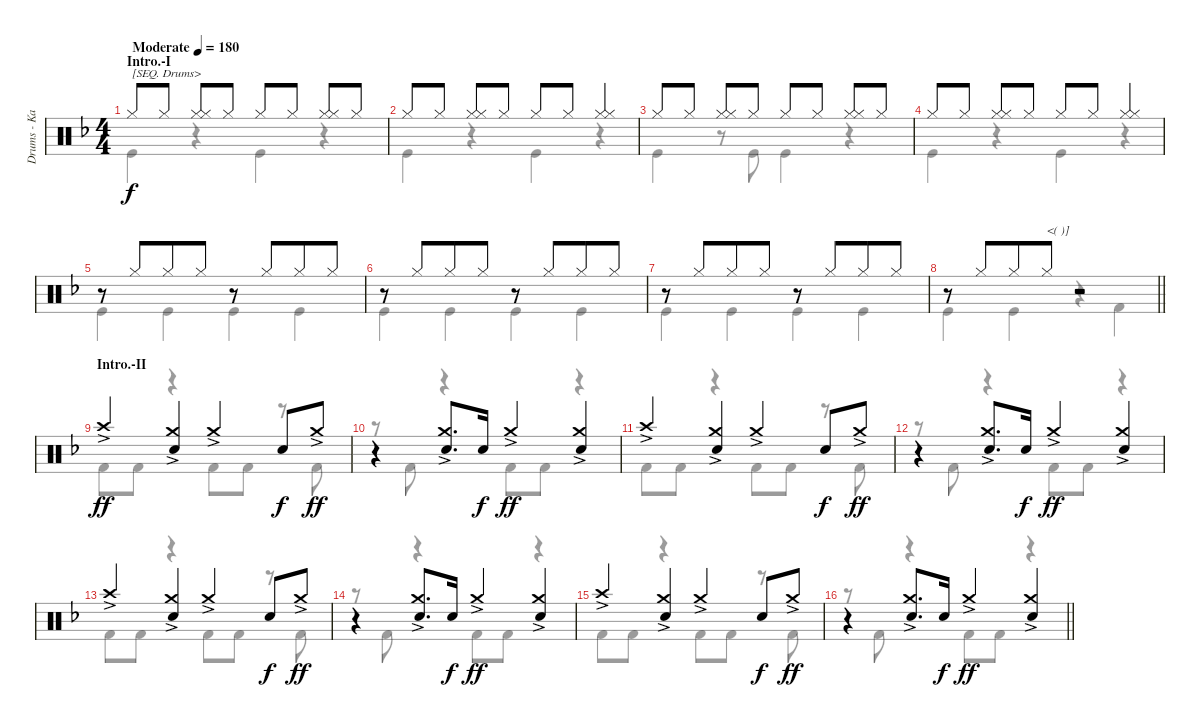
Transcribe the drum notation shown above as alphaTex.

\track ("Drums - Kai" "Drums - Ka") {instrument percussion}
\staff {score}
\articulation defaults
\voice
\ts (4 4)
\section ("" "Intro.-I")
\tempo (180 "Moderate")
\clef neutral
\ks f "Hi-Hat (closed)".8{txt "[SEQ. Drums>" dy f} "Hi-Hat (closed)".8
("Hi-Hat (closed)" "Hi-Hat (closed)").8 "Hi-Hat (closed)".8 "Hi-Hat (closed)".8 "Hi-Hat (closed)".8 ("Hi-Hat (closed)" "Hi-Hat (closed)").8 "Hi-Hat (closed)".8 |
"Hi-Hat (closed)".8 "Hi-Hat (closed)".8 ("Hi-Hat (closed)" "Hi-Hat (closed)").8 "Hi-Hat (closed)".8 "Hi-Hat (closed)".8 "Hi-Hat (closed)".8 ("Hi-Hat (closed)" "Hi-Hat (closed)").4 |
"Hi-Hat (closed)".8 "Hi-Hat (closed)".8 ("Hi-Hat (closed)" "Hi-Hat (closed)").8 "Hi-Hat (closed)".8 "Hi-Hat (closed)".8 "Hi-Hat (closed)".8 ("Hi-Hat (closed)" "Hi-Hat (closed)").8 "Hi-Hat (closed)".8 |
"Hi-Hat (closed)".8 "Hi-Hat (closed)".8 ("Hi-Hat (closed)" "Hi-Hat (closed)").8 "Hi-Hat (closed)".8 "Hi-Hat (closed)".8 "Hi-Hat (closed)".8 ("Hi-Hat (closed)" "Hi-Hat (closed)").4 |
r.8 "Hi-Hat (closed)".8{beam merge} "Hi-Hat (closed)".8 "Hi-Hat (closed)".8 r.8 "Hi-Hat (closed)".8{beam merge} "Hi-Hat (closed)".8 "Hi-Hat (closed)".8 |
r.8 "Hi-Hat (closed)".8{beam merge} "Hi-Hat (closed)".8 "Hi-Hat (closed)".8 r.8 "Hi-Hat (closed)".8{beam merge} "Hi-Hat (closed)".8 "Hi-Hat (closed)".8 |
r.8 "Hi-Hat (closed)".8{beam merge} "Hi-Hat (closed)".8 "Hi-Hat (closed)".8 r.8 "Hi-Hat (closed)".8{beam merge} "Hi-Hat (closed)".8 "Hi-Hat (closed)".8 |
\barLineRight lightlight
r.8 "Hi-Hat (closed)".8{beam merge} "Hi-Hat (closed)".8 "Hi-Hat (closed)".8{txt "<( )]"} r.2 |
\section ("" "Intro.-II")
"Crash high (hit)"{ac}.4{dy ff} ("Crash medium (hit)"{ac} "Snare (hit) 2").4 "Crash medium (hit)"{ac}.4 "Snare (hit) 2".8{dy f} "Crash medium (hit)"{ac}.8{dy ff} |
r.4 ("Crash medium (hit)"{ac} "Snare (hit) 2").8{d} "Snare (hit) 2".16{dy f} "Crash medium (hit)"{ac}.4{dy ff} ("Crash medium (hit)"{ac} "Snare (hit) 2").4 |
"Crash high (hit)"{ac}.4 ("Crash medium (hit)"{ac} "Snare (hit) 2").4 "Crash medium (hit)"{ac}.4 "Snare (hit) 2".8{dy f} "Crash medium (hit)"{ac}.8{dy ff} |
r.4 ("Crash medium (hit)"{ac} "Snare (hit) 2").8{d} "Snare (hit) 2".16{dy f} "Crash medium (hit)"{ac}.4{dy ff} ("Crash medium (hit)"{ac} "Snare (hit) 2").4 |
"Crash high (hit)"{ac}.4 ("Crash medium (hit)"{ac} "Snare (hit) 2").4 "Crash medium (hit)"{ac}.4 "Snare (hit) 2".8{dy f} "Crash medium (hit)"{ac}.8{dy ff} |
r.4 ("Crash medium (hit)"{ac} "Snare (hit) 2").8{d} "Snare (hit) 2".16{dy f} "Crash medium (hit)"{ac}.4{dy ff} ("Crash medium (hit)"{ac} "Snare (hit) 2").4 |
"Crash high (hit)"{ac}.4 ("Crash medium (hit)"{ac} "Snare (hit) 2").4 "Crash medium (hit)"{ac}.4 "Snare (hit) 2".8{dy f} "Crash medium (hit)"{ac}.8{dy ff} |
\barLineRight lightlight
r.4 ("Crash medium (hit)"{ac} "Snare (hit) 2").8{d} "Snare (hit) 2".16{dy f} "Crash medium (hit)"{ac}.4{dy ff} ("Crash medium (hit)"{ac} "Snare (hit) 2").4
\voice
\clef neutral
\ottava regular
\simile none
\ks f "Kick (hit)".4{dy f}
r.4 "Kick (hit)".4 r.4 |
"Kick (hit)".4 r.4 "Kick (hit)".4 r.4 |
"Kick (hit)".4 r.8 "Kick (hit)".8 "Kick (hit)".4 r.4 |
"Kick (hit)".4 r.4 "Kick (hit)".4 r.4 |
"Kick (hit)".4 "Kick (hit)".4 "Kick (hit)".4 "Kick (hit)".4 |
"Kick (hit)".4 "Kick (hit)".4 "Kick (hit)".4 "Kick (hit)".4 |
"Kick (hit)".4 "Kick (hit)".4 "Kick (hit)".4 "Kick (hit)".4 |
\barLineRight lightlight "Kick (hit)".4 "Kick (hit)".4
r.4 "Kick (hit) 2".4 |
"Kick (hit) 2".8 "Kick (hit) 2".8 r.4 "Kick (hit) 2".8 "Kick (hit) 2".8 r.8 "Kick (hit) 2".8 |
r.8 "Kick (hit) 2".8 r.4 "Kick (hit) 2".8 "Kick (hit) 2".8 r.4 |
"Kick (hit) 2".8 "Kick (hit) 2".8 r.4 "Kick (hit) 2".8 "Kick (hit) 2".8 r.8 "Kick (hit) 2".8 |
r.8 "Kick (hit) 2".8 r.4 "Kick (hit) 2".8 "Kick (hit) 2".8 r.4 |
"Kick (hit) 2".8 "Kick (hit) 2".8 r.4 "Kick (hit) 2".8 "Kick (hit) 2".8 r.8 "Kick (hit) 2".8 |
r.8 "Kick (hit) 2".8 r.4 "Kick (hit) 2".8 "Kick (hit) 2".8 r.4 |
"Kick (hit) 2".8 "Kick (hit) 2".8 r.4 "Kick (hit) 2".8 "Kick (hit) 2".8 r.8 "Kick (hit) 2".8 |
\barLineRight lightlight
r.8 "Kick (hit) 2".8 r.4 "Kick (hit) 2".8 "Kick (hit) 2".8 r.4
